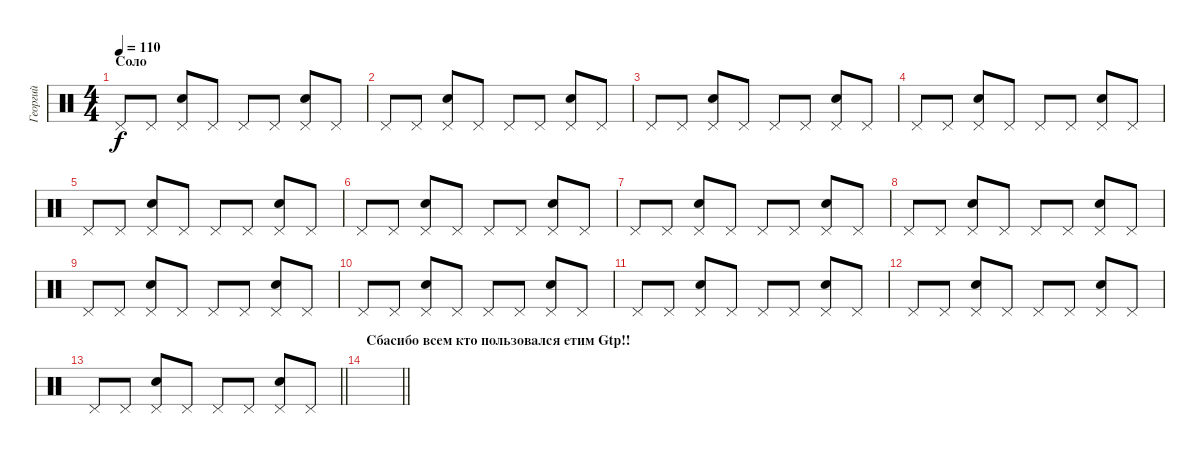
\track ("Георгий" "Георгий") {instrument percussion}
\staff {score}
\articulation defaults
\ts (4 4)
\section ("" "Соло")
\tempo 110
\clef neutral
\ks c "Pedal Hi-Hat (hit)".8{dy f} "Pedal Hi-Hat (hit)".8
("Pedal Hi-Hat (hit)" "Snare (hit) 2").8 "Pedal Hi-Hat (hit)".8 "Pedal Hi-Hat (hit)".8 "Pedal Hi-Hat (hit)".8 ("Pedal Hi-Hat (hit)" "Snare (hit) 2").8 "Pedal Hi-Hat (hit)".8 |
"Pedal Hi-Hat (hit)".8 "Pedal Hi-Hat (hit)".8 ("Pedal Hi-Hat (hit)" "Snare (hit) 2").8 "Pedal Hi-Hat (hit)".8 "Pedal Hi-Hat (hit)".8 "Pedal Hi-Hat (hit)".8 ("Pedal Hi-Hat (hit)" "Snare (hit) 2").8 "Pedal Hi-Hat (hit)".8 |
"Pedal Hi-Hat (hit)".8 "Pedal Hi-Hat (hit)".8 ("Pedal Hi-Hat (hit)" "Snare (hit) 2").8 "Pedal Hi-Hat (hit)".8 "Pedal Hi-Hat (hit)".8 "Pedal Hi-Hat (hit)".8 ("Pedal Hi-Hat (hit)" "Snare (hit) 2").8 "Pedal Hi-Hat (hit)".8 |
"Pedal Hi-Hat (hit)".8 "Pedal Hi-Hat (hit)".8 ("Pedal Hi-Hat (hit)" "Snare (hit) 2").8 "Pedal Hi-Hat (hit)".8 "Pedal Hi-Hat (hit)".8 "Pedal Hi-Hat (hit)".8 ("Pedal Hi-Hat (hit)" "Snare (hit) 2").8 "Pedal Hi-Hat (hit)".8 |
"Pedal Hi-Hat (hit)".8 "Pedal Hi-Hat (hit)".8 ("Pedal Hi-Hat (hit)" "Snare (hit) 2").8 "Pedal Hi-Hat (hit)".8 "Pedal Hi-Hat (hit)".8 "Pedal Hi-Hat (hit)".8 ("Pedal Hi-Hat (hit)" "Snare (hit) 2").8 "Pedal Hi-Hat (hit)".8 |
"Pedal Hi-Hat (hit)".8 "Pedal Hi-Hat (hit)".8 ("Pedal Hi-Hat (hit)" "Snare (hit) 2").8 "Pedal Hi-Hat (hit)".8 "Pedal Hi-Hat (hit)".8 "Pedal Hi-Hat (hit)".8 ("Pedal Hi-Hat (hit)" "Snare (hit) 2").8 "Pedal Hi-Hat (hit)".8 |
"Pedal Hi-Hat (hit)".8 "Pedal Hi-Hat (hit)".8 ("Pedal Hi-Hat (hit)" "Snare (hit) 2").8 "Pedal Hi-Hat (hit)".8 "Pedal Hi-Hat (hit)".8 "Pedal Hi-Hat (hit)".8 ("Pedal Hi-Hat (hit)" "Snare (hit) 2").8 "Pedal Hi-Hat (hit)".8 |
"Pedal Hi-Hat (hit)".8 "Pedal Hi-Hat (hit)".8 ("Pedal Hi-Hat (hit)" "Snare (hit) 2").8 "Pedal Hi-Hat (hit)".8 "Pedal Hi-Hat (hit)".8 "Pedal Hi-Hat (hit)".8 ("Pedal Hi-Hat (hit)" "Snare (hit) 2").8 "Pedal Hi-Hat (hit)".8 |
"Pedal Hi-Hat (hit)".8 "Pedal Hi-Hat (hit)".8 ("Pedal Hi-Hat (hit)" "Snare (hit) 2").8{volume 0} "Pedal Hi-Hat (hit)".8 "Pedal Hi-Hat (hit)".8 "Pedal Hi-Hat (hit)".8 ("Pedal Hi-Hat (hit)" "Snare (hit) 2").8 "Pedal Hi-Hat (hit)".8 |
"Pedal Hi-Hat (hit)".8 "Pedal Hi-Hat (hit)".8 ("Pedal Hi-Hat (hit)" "Snare (hit) 2").8 "Pedal Hi-Hat (hit)".8 "Pedal Hi-Hat (hit)".8 "Pedal Hi-Hat (hit)".8 ("Pedal Hi-Hat (hit)" "Snare (hit) 2").8 "Pedal Hi-Hat (hit)".8 |
"Pedal Hi-Hat (hit)".8 "Pedal Hi-Hat (hit)".8 ("Pedal Hi-Hat (hit)" "Snare (hit) 2").8 "Pedal Hi-Hat (hit)".8 "Pedal Hi-Hat (hit)".8 "Pedal Hi-Hat (hit)".8 ("Pedal Hi-Hat (hit)" "Snare (hit) 2").8 "Pedal Hi-Hat (hit)".8 |
"Pedal Hi-Hat (hit)".8 "Pedal Hi-Hat (hit)".8 ("Pedal Hi-Hat (hit)" "Snare (hit) 2").8 "Pedal Hi-Hat (hit)".8 "Pedal Hi-Hat (hit)".8 "Pedal Hi-Hat (hit)".8 ("Pedal Hi-Hat (hit)" "Snare (hit) 2").8 "Pedal Hi-Hat (hit)".8 |
\barLineRight lightlight "Pedal Hi-Hat (hit)".8 "Pedal Hi-Hat (hit)".8
("Pedal Hi-Hat (hit)" "Snare (hit) 2").8 "Pedal Hi-Hat (hit)".8 "Pedal Hi-Hat (hit)".8 "Pedal Hi-Hat (hit)".8 ("Pedal Hi-Hat (hit)" "Snare (hit) 2").8 "Pedal Hi-Hat (hit)".8 |
\section ("" "Сбасибо всем кто пользовался етим Gtp!!")
\barLineRight lightlight
